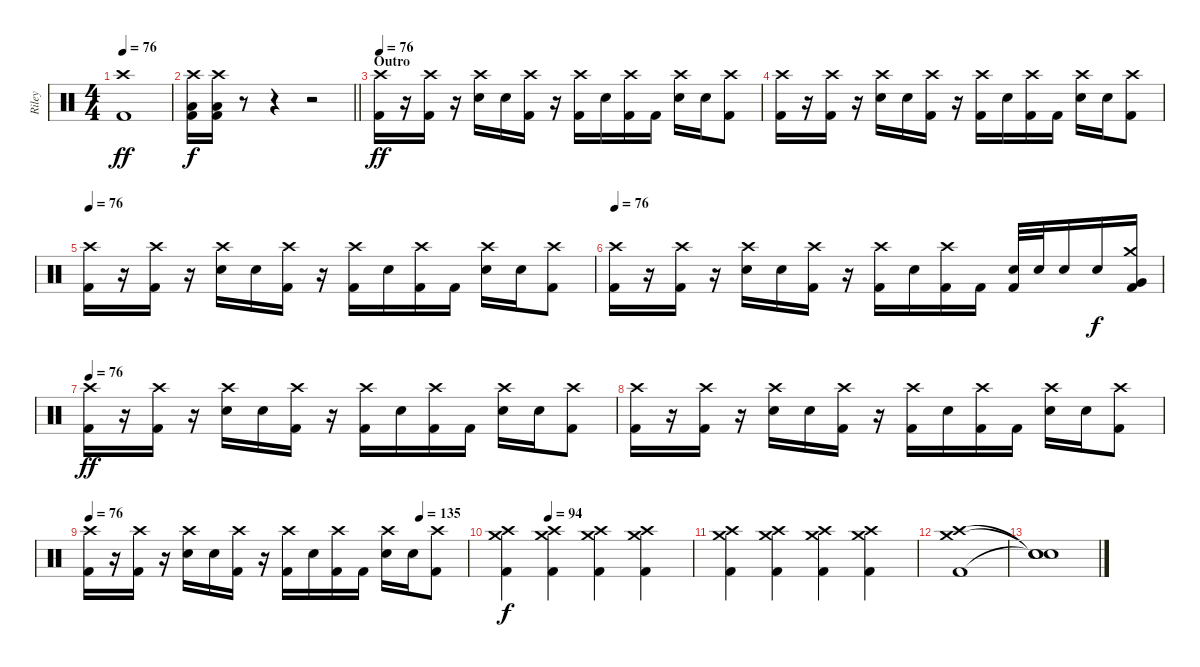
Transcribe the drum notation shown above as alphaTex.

\track ("Riley" "Riley") {instrument percussion}
\staff {score}
\articulation defaults
\ts (4 4)
\tempo 76
\clef neutral
\ks c
("Crash high (hit)" "Kick (hit) 2").1{dy ff} |
\barLineRight lightlight
("Crash high (hit)" "Low Tom (hit)" "Kick (hit) 2").16{dy f} ("Crash high (hit)" "Low Tom (hit)" "Kick (hit) 2").16 r.8{volume 0} r.4{volume 13} r.2 |
\section ("" "Outro")
\tempo 76
("Crash high (hit)" "Kick (hit) 2").16{dy ff} r.16 ("Crash high (hit)" "Kick (hit) 2").16 r.16 ("Crash high (hit)" "Electric Snare (hit)").16 "Electric Snare (hit)".16 ("Crash high (hit)" "Kick (hit) 2").16 r.16 ("Crash high (hit)" "Kick (hit) 2").16 "Electric Snare (hit)".16 ("Crash high (hit)" "Kick (hit) 2").16 "Kick (hit) 2".16 ("Crash high (hit)" "Electric Snare (hit)").16 "Electric Snare (hit)".16 ("Crash high (hit)" "Kick (hit) 2").8 |
("Crash high (hit)" "Kick (hit) 2").16 r.16 ("Crash high (hit)" "Kick (hit) 2").16 r.16 ("Crash high (hit)" "Electric Snare (hit)").16 "Electric Snare (hit)".16 ("Crash high (hit)" "Kick (hit) 2").16 r.16 ("Crash high (hit)" "Kick (hit) 2").16 "Electric Snare (hit)".16 ("Crash high (hit)" "Kick (hit) 2").16 "Kick (hit) 2".16 ("Crash high (hit)" "Electric Snare (hit)").16 "Electric Snare (hit)".16 ("Crash high (hit)" "Kick (hit) 2").8 |
\tempo 76
("Crash high (hit)" "Kick (hit) 2").16 r.16 ("Crash high (hit)" "Kick (hit) 2").16 r.16 ("Crash high (hit)" "Electric Snare (hit)").16 "Electric Snare (hit)".16 ("Crash high (hit)" "Kick (hit) 2").16 r.16 ("Crash high (hit)" "Kick (hit) 2").16 "Electric Snare (hit)".16 ("Crash high (hit)" "Kick (hit) 2").16 "Kick (hit) 2".16 ("Crash high (hit)" "Electric Snare (hit)").16 "Electric Snare (hit)".16 ("Crash high (hit)" "Kick (hit) 2").8 |
\tempo 76
("Crash high (hit)" "Kick (hit) 2").16 r.16 ("Crash high (hit)" "Kick (hit) 2").16 r.16 ("Crash high (hit)" "Electric Snare (hit)").16 "Electric Snare (hit)".16 ("Crash high (hit)" "Kick (hit) 2").16 r.16 ("Crash high (hit)" "Kick (hit) 2").16 "Electric Snare (hit)".16 ("Crash high (hit)" "Kick (hit) 2").16 "Kick (hit) 2".16 ("Electric Snare (hit)" "Kick (hit) 2").32 "Electric Snare (hit)".32 "Electric Snare (hit)".16 "Electric Snare (hit)".16{dy f} ("Crash medium (hit)" "Very Low Tom (hit)" "Kick (hit) 2").16 |
\tempo 76
("Crash high (hit)" "Kick (hit) 2").16{dy ff} r.16 ("Crash high (hit)" "Kick (hit) 2").16 r.16 ("Crash high (hit)" "Electric Snare (hit)").16 "Electric Snare (hit)".16 ("Crash high (hit)" "Kick (hit) 2").16 r.16 ("Crash high (hit)" "Kick (hit) 2").16 "Electric Snare (hit)".16 ("Crash high (hit)" "Kick (hit) 2").16 "Kick (hit) 2".16 ("Crash high (hit)" "Electric Snare (hit)").16 "Electric Snare (hit)".16 ("Crash high (hit)" "Kick (hit) 2").8 |
("Crash high (hit)" "Kick (hit) 2").16 r.16 ("Crash high (hit)" "Kick (hit) 2").16 r.16 ("Crash high (hit)" "Electric Snare (hit)").16 "Electric Snare (hit)".16 ("Crash high (hit)" "Kick (hit) 2").16 r.16 ("Crash high (hit)" "Kick (hit) 2").16 "Electric Snare (hit)".16 ("Crash high (hit)" "Kick (hit) 2").16 "Kick (hit) 2".16 ("Crash high (hit)" "Electric Snare (hit)").16 "Electric Snare (hit)".16 ("Crash high (hit)" "Kick (hit) 2").8 |
\tempo 76
\tempo (135 0.875)
("Crash high (hit)" "Kick (hit) 2").16 r.16 ("Crash high (hit)" "Kick (hit) 2").16 r.16 ("Crash high (hit)" "Electric Snare (hit)").16 "Electric Snare (hit)".16 ("Crash high (hit)" "Kick (hit) 2").16 r.16 ("Crash high (hit)" "Kick (hit) 2").16 "Electric Snare (hit)".16 ("Crash high (hit)" "Kick (hit) 2").16 "Kick (hit) 2".16 ("Crash high (hit)" "Electric Snare (hit)").16 "Electric Snare (hit)".16 ("Crash high (hit)" "Kick (hit) 2").8 |
\tempo (94 0.25)
("Crash high (hit)" "Crash medium (hit)" "Kick (hit) 2").4{dy f} ("Crash high (hit)" "Crash medium (hit)" "Kick (hit) 2").4 ("Crash high (hit)" "Crash medium (hit)" "Kick (hit) 2").4 ("Crash high (hit)" "Crash medium (hit)" "Kick (hit) 2").4 |
("Crash high (hit)" "Crash medium (hit)" "Kick (hit) 2").4 ("Crash high (hit)" "Crash medium (hit)" "Kick (hit) 2").4 ("Crash high (hit)" "Crash medium (hit)" "Kick (hit) 2").4 ("Crash high (hit)" "Crash medium (hit)" "Kick (hit) 2").4 |
("Crash high (hit)" "Crash medium (hit)" "Kick (hit) 2").1 |
("Snare (hit)"{t} "Snare (hit)"{t} "Snare (hit)"{t}).1
